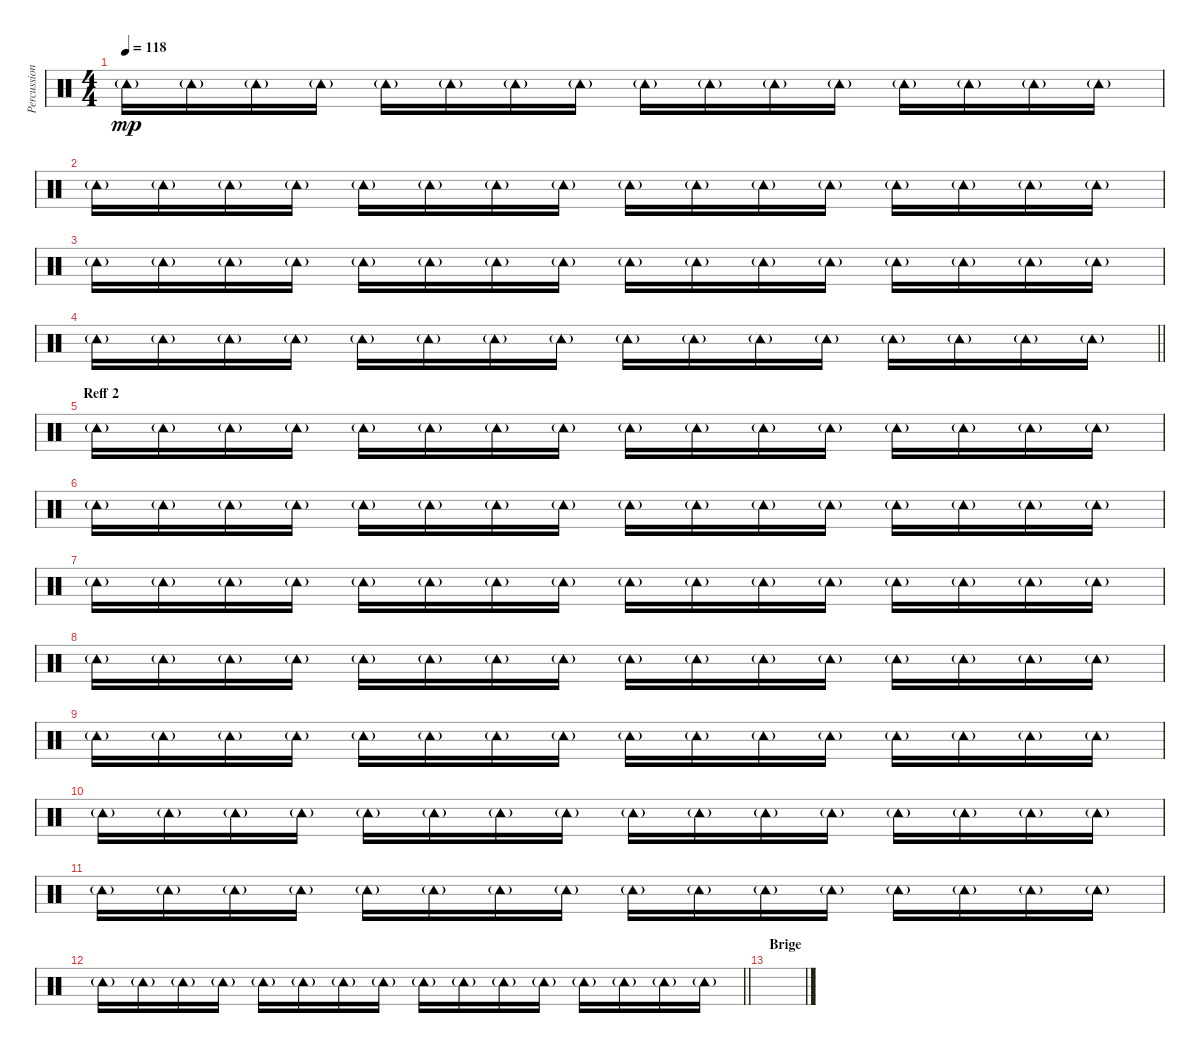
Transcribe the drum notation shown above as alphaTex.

\track ("Percussion 2" "Percussion") {instrument percussion}
\staff {score}
\articulation defaults
\ts (4 4)
\tempo 118
\clef neutral
\ks c "Tambourine (hit)"{g}.16{dy mp} "Tambourine (hit)"{g}.16 "Tambourine (hit)"{g}.16 "Tambourine (hit)"{g}.16 "Tambourine (hit)"{g}.16 "Tambourine (hit)"{g}.16 "Tambourine (hit)"{g}.16 "Tambourine (hit)"{g}.16 "Tambourine (hit)"{g}.16 "Tambourine (hit)"{g}.16 "Tambourine (hit)"{g}.16 "Tambourine (hit)"{g}.16 "Tambourine (hit)"{g}.16 "Tambourine (hit)"{g}.16 "Tambourine (hit)"{g}.16 "Tambourine (hit)"{g}.16
|
"Tambourine (hit)"{g}.16 "Tambourine (hit)"{g}.16 "Tambourine (hit)"{g}.16 "Tambourine (hit)"{g}.16 "Tambourine (hit)"{g}.16 "Tambourine (hit)"{g}.16 "Tambourine (hit)"{g}.16 "Tambourine (hit)"{g}.16 "Tambourine (hit)"{g}.16 "Tambourine (hit)"{g}.16 "Tambourine (hit)"{g}.16 "Tambourine (hit)"{g}.16 "Tambourine (hit)"{g}.16 "Tambourine (hit)"{g}.16 "Tambourine (hit)"{g}.16 "Tambourine (hit)"{g}.16 |
"Tambourine (hit)"{g}.16 "Tambourine (hit)"{g}.16 "Tambourine (hit)"{g}.16 "Tambourine (hit)"{g}.16 "Tambourine (hit)"{g}.16 "Tambourine (hit)"{g}.16 "Tambourine (hit)"{g}.16 "Tambourine (hit)"{g}.16 "Tambourine (hit)"{g}.16 "Tambourine (hit)"{g}.16 "Tambourine (hit)"{g}.16 "Tambourine (hit)"{g}.16 "Tambourine (hit)"{g}.16 "Tambourine (hit)"{g}.16 "Tambourine (hit)"{g}.16 "Tambourine (hit)"{g}.16 |
\barLineRight lightlight "Tambourine (hit)"{g}.16 "Tambourine (hit)"{g}.16 "Tambourine (hit)"{g}.16 "Tambourine (hit)"{g}.16 "Tambourine (hit)"{g}.16 "Tambourine (hit)"{g}.16 "Tambourine (hit)"{g}.16 "Tambourine (hit)"{g}.16 "Tambourine (hit)"{g}.16 "Tambourine (hit)"{g}.16 "Tambourine (hit)"{g}.16 "Tambourine (hit)"{g}.16 "Tambourine (hit)"{g}.16 "Tambourine (hit)"{g}.16 "Tambourine (hit)"{g}.16 "Tambourine (hit)"{g}.16
|
\section ("" "Reff 2")
"Tambourine (hit)"{g}.16 "Tambourine (hit)"{g}.16 "Tambourine (hit)"{g}.16 "Tambourine (hit)"{g}.16 "Tambourine (hit)"{g}.16 "Tambourine (hit)"{g}.16 "Tambourine (hit)"{g}.16 "Tambourine (hit)"{g}.16 "Tambourine (hit)"{g}.16 "Tambourine (hit)"{g}.16 "Tambourine (hit)"{g}.16 "Tambourine (hit)"{g}.16 "Tambourine (hit)"{g}.16 "Tambourine (hit)"{g}.16 "Tambourine (hit)"{g}.16 "Tambourine (hit)"{g}.16 |
"Tambourine (hit)"{g}.16 "Tambourine (hit)"{g}.16 "Tambourine (hit)"{g}.16 "Tambourine (hit)"{g}.16 "Tambourine (hit)"{g}.16 "Tambourine (hit)"{g}.16 "Tambourine (hit)"{g}.16 "Tambourine (hit)"{g}.16 "Tambourine (hit)"{g}.16 "Tambourine (hit)"{g}.16 "Tambourine (hit)"{g}.16 "Tambourine (hit)"{g}.16 "Tambourine (hit)"{g}.16 "Tambourine (hit)"{g}.16 "Tambourine (hit)"{g}.16 "Tambourine (hit)"{g}.16 |
"Tambourine (hit)"{g}.16 "Tambourine (hit)"{g}.16 "Tambourine (hit)"{g}.16 "Tambourine (hit)"{g}.16 "Tambourine (hit)"{g}.16 "Tambourine (hit)"{g}.16 "Tambourine (hit)"{g}.16 "Tambourine (hit)"{g}.16 "Tambourine (hit)"{g}.16 "Tambourine (hit)"{g}.16 "Tambourine (hit)"{g}.16 "Tambourine (hit)"{g}.16 "Tambourine (hit)"{g}.16 "Tambourine (hit)"{g}.16 "Tambourine (hit)"{g}.16 "Tambourine (hit)"{g}.16 |
"Tambourine (hit)"{g}.16 "Tambourine (hit)"{g}.16 "Tambourine (hit)"{g}.16 "Tambourine (hit)"{g}.16 "Tambourine (hit)"{g}.16 "Tambourine (hit)"{g}.16 "Tambourine (hit)"{g}.16 "Tambourine (hit)"{g}.16 "Tambourine (hit)"{g}.16 "Tambourine (hit)"{g}.16 "Tambourine (hit)"{g}.16 "Tambourine (hit)"{g}.16 "Tambourine (hit)"{g}.16 "Tambourine (hit)"{g}.16 "Tambourine (hit)"{g}.16 "Tambourine (hit)"{g}.16 |
"Tambourine (hit)"{g}.16 "Tambourine (hit)"{g}.16 "Tambourine (hit)"{g}.16 "Tambourine (hit)"{g}.16 "Tambourine (hit)"{g}.16 "Tambourine (hit)"{g}.16 "Tambourine (hit)"{g}.16 "Tambourine (hit)"{g}.16 "Tambourine (hit)"{g}.16 "Tambourine (hit)"{g}.16 "Tambourine (hit)"{g}.16 "Tambourine (hit)"{g}.16 "Tambourine (hit)"{g}.16 "Tambourine (hit)"{g}.16 "Tambourine (hit)"{g}.16 "Tambourine (hit)"{g}.16 |
"Tambourine (hit)"{g}.16 "Tambourine (hit)"{g}.16 "Tambourine (hit)"{g}.16 "Tambourine (hit)"{g}.16 "Tambourine (hit)"{g}.16 "Tambourine (hit)"{g}.16 "Tambourine (hit)"{g}.16 "Tambourine (hit)"{g}.16 "Tambourine (hit)"{g}.16 "Tambourine (hit)"{g}.16 "Tambourine (hit)"{g}.16 "Tambourine (hit)"{g}.16 "Tambourine (hit)"{g}.16 "Tambourine (hit)"{g}.16 "Tambourine (hit)"{g}.16 "Tambourine (hit)"{g}.16 |
"Tambourine (hit)"{g}.16 "Tambourine (hit)"{g}.16 "Tambourine (hit)"{g}.16 "Tambourine (hit)"{g}.16 "Tambourine (hit)"{g}.16 "Tambourine (hit)"{g}.16 "Tambourine (hit)"{g}.16 "Tambourine (hit)"{g}.16 "Tambourine (hit)"{g}.16 "Tambourine (hit)"{g}.16 "Tambourine (hit)"{g}.16 "Tambourine (hit)"{g}.16 "Tambourine (hit)"{g}.16 "Tambourine (hit)"{g}.16 "Tambourine (hit)"{g}.16 "Tambourine (hit)"{g}.16 |
\barLineRight lightlight "Tambourine (hit)"{g}.16 "Tambourine (hit)"{g}.16 "Tambourine (hit)"{g}.16 "Tambourine (hit)"{g}.16 "Tambourine (hit)"{g}.16 "Tambourine (hit)"{g}.16 "Tambourine (hit)"{g}.16 "Tambourine (hit)"{g}.16 "Tambourine (hit)"{g}.16 "Tambourine (hit)"{g}.16 "Tambourine (hit)"{g}.16 "Tambourine (hit)"{g}.16 "Tambourine (hit)"{g}.16 "Tambourine (hit)"{g}.16 "Tambourine (hit)"{g}.16 "Tambourine (hit)"{g}.16
|
\section ("" "Brige")
